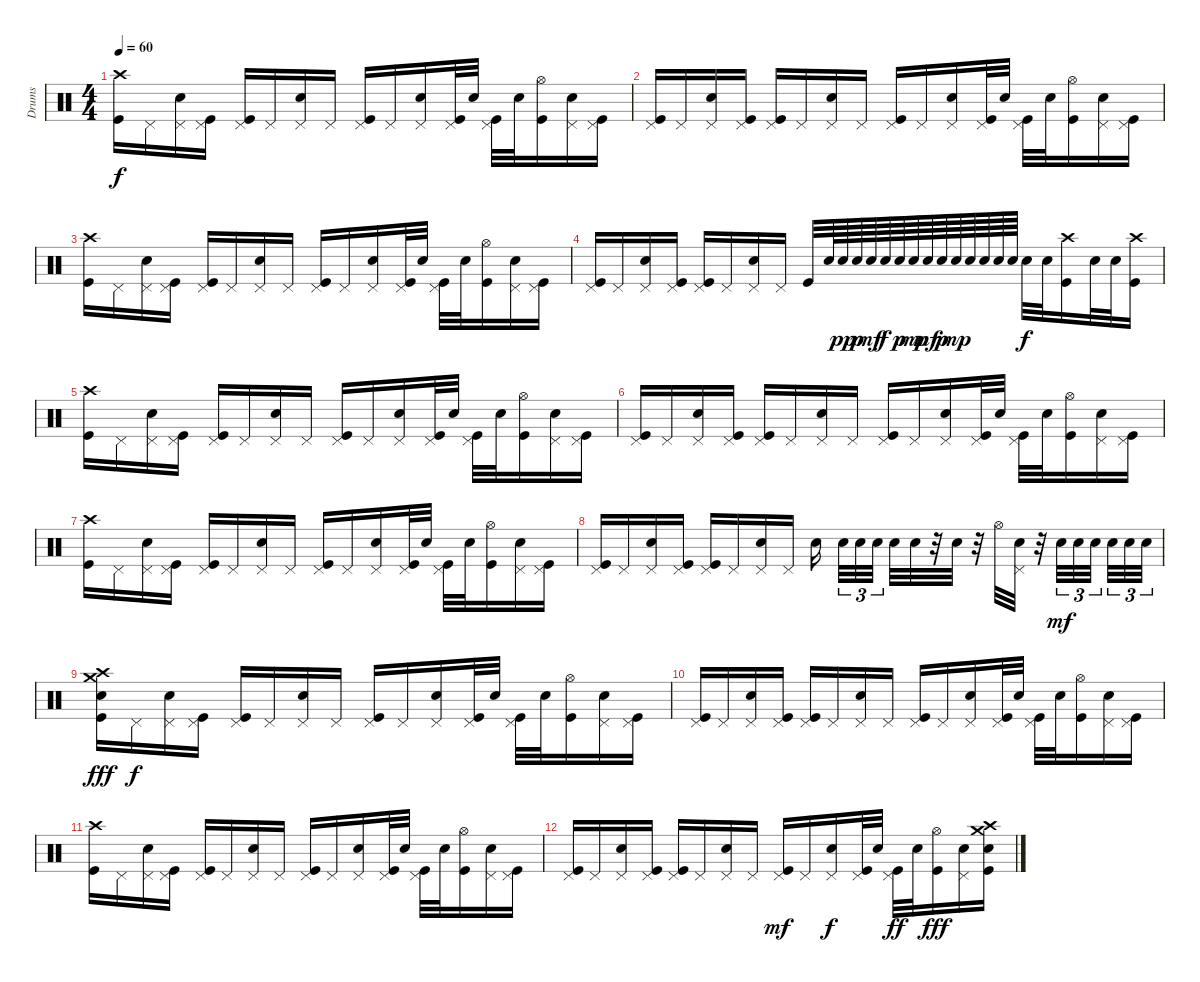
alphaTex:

\track ("Drums" "Drums") {instrument percussion}
\staff {score}
\articulation defaults
\ts (4 4)
\tempo 60
\clef neutral
\ks c
("Crash high (hit)" "Kick (hit)").16{dy f} "Pedal Hi-Hat (hit)".16 ("Pedal Hi-Hat (hit)" "Electric Snare (hit)").16 ("Pedal Hi-Hat (hit)" "Kick (hit)").16 ("Pedal Hi-Hat (hit)" "Kick (hit)").16 "Pedal Hi-Hat (hit)".16 ("Pedal Hi-Hat (hit)" "Electric Snare (hit)").16 "Pedal Hi-Hat (hit)".16 ("Pedal Hi-Hat (hit)" "Kick (hit)").16 "Pedal Hi-Hat (hit)".16 ("Pedal Hi-Hat (hit)" "Electric Snare (hit)").16 ("Pedal Hi-Hat (hit)" "Kick (hit)").32 "Electric Snare (hit)".32 ("Pedal Hi-Hat (hit)" "Kick (hit)").32 "Electric Snare (hit)".32 ("Hi-Hat (open)" "Kick (hit)").16 ("Pedal Hi-Hat (hit)" "Electric Snare (hit)").16 ("Pedal Hi-Hat (hit)" "Kick (hit)").16 |
("Pedal Hi-Hat (hit)" "Kick (hit)").16 "Pedal Hi-Hat (hit)".16 ("Pedal Hi-Hat (hit)" "Electric Snare (hit)").16 ("Pedal Hi-Hat (hit)" "Kick (hit)").16 ("Pedal Hi-Hat (hit)" "Kick (hit)").16 "Pedal Hi-Hat (hit)".16 ("Pedal Hi-Hat (hit)" "Electric Snare (hit)").16 "Pedal Hi-Hat (hit)".16 ("Pedal Hi-Hat (hit)" "Kick (hit)").16 "Pedal Hi-Hat (hit)".16 ("Pedal Hi-Hat (hit)" "Electric Snare (hit)").16 ("Pedal Hi-Hat (hit)" "Kick (hit)").32 "Electric Snare (hit)".32 ("Pedal Hi-Hat (hit)" "Kick (hit)").32 "Electric Snare (hit)".32 ("Hi-Hat (open)" "Kick (hit)").16 ("Pedal Hi-Hat (hit)" "Electric Snare (hit)").16 ("Pedal Hi-Hat (hit)" "Kick (hit)").16 |
("Crash high (hit)" "Kick (hit)").16 "Pedal Hi-Hat (hit)".16 ("Pedal Hi-Hat (hit)" "Electric Snare (hit)").16 ("Pedal Hi-Hat (hit)" "Kick (hit)").16 ("Pedal Hi-Hat (hit)" "Kick (hit)").16 "Pedal Hi-Hat (hit)".16 ("Pedal Hi-Hat (hit)" "Electric Snare (hit)").16 "Pedal Hi-Hat (hit)".16 ("Pedal Hi-Hat (hit)" "Kick (hit)").16 "Pedal Hi-Hat (hit)".16 ("Pedal Hi-Hat (hit)" "Electric Snare (hit)").16 ("Pedal Hi-Hat (hit)" "Kick (hit)").32 "Electric Snare (hit)".32 ("Pedal Hi-Hat (hit)" "Kick (hit)").32 "Electric Snare (hit)".32 ("Hi-Hat (open)" "Kick (hit)").16 ("Pedal Hi-Hat (hit)" "Electric Snare (hit)").16 ("Pedal Hi-Hat (hit)" "Kick (hit)").16 |
("Pedal Hi-Hat (hit)" "Kick (hit)").16 "Pedal Hi-Hat (hit)".16 ("Pedal Hi-Hat (hit)" "Electric Snare (hit)").16 ("Pedal Hi-Hat (hit)" "Kick (hit)").16 ("Pedal Hi-Hat (hit)" "Kick (hit)").16 "Pedal Hi-Hat (hit)".16 ("Pedal Hi-Hat (hit)" "Electric Snare (hit)").16 "Pedal Hi-Hat (hit)".16 "Kick (hit)".32 "Electric Snare (hit)".64 "Electric Snare (hit)".64{dy pp} "Electric Snare (hit)".64{dy p} "Electric Snare (hit)".64{dy mf} "Electric Snare (hit)".64{dy f} "Electric Snare (hit)".64{dy p} "Electric Snare (hit)".64{dy mp} "Electric Snare (hit)".64{dy mf} "Electric Snare (hit)".64{dy p} "Electric Snare (hit)".64{dy mp} "Electric Snare (hit)".64 "Electric Snare (hit)".64 "Electric Snare (hit)".64 "Electric Snare (hit)".64 "Electric Snare (hit)".32{dy f} "Electric Snare (hit)".32 ("Crash high (hit)" "Kick (hit)").16 "Electric Snare (hit)".32 "Electric Snare (hit)".32 ("Crash high (hit)" "Kick (hit)").16 |
("Crash high (hit)" "Kick (hit)").16 "Pedal Hi-Hat (hit)".16 ("Pedal Hi-Hat (hit)" "Electric Snare (hit)").16 ("Pedal Hi-Hat (hit)" "Kick (hit)").16 ("Pedal Hi-Hat (hit)" "Kick (hit)").16 "Pedal Hi-Hat (hit)".16 ("Pedal Hi-Hat (hit)" "Electric Snare (hit)").16 "Pedal Hi-Hat (hit)".16 ("Pedal Hi-Hat (hit)" "Kick (hit)").16 "Pedal Hi-Hat (hit)".16 ("Pedal Hi-Hat (hit)" "Electric Snare (hit)").16 ("Pedal Hi-Hat (hit)" "Kick (hit)").32 "Electric Snare (hit)".32 ("Pedal Hi-Hat (hit)" "Kick (hit)").32 "Electric Snare (hit)".32 ("Hi-Hat (open)" "Kick (hit)").16 ("Pedal Hi-Hat (hit)" "Electric Snare (hit)").16 ("Pedal Hi-Hat (hit)" "Kick (hit)").16 |
("Pedal Hi-Hat (hit)" "Kick (hit)").16 "Pedal Hi-Hat (hit)".16 ("Pedal Hi-Hat (hit)" "Electric Snare (hit)").16 ("Pedal Hi-Hat (hit)" "Kick (hit)").16 ("Pedal Hi-Hat (hit)" "Kick (hit)").16 "Pedal Hi-Hat (hit)".16 ("Pedal Hi-Hat (hit)" "Electric Snare (hit)").16 "Pedal Hi-Hat (hit)".16 ("Pedal Hi-Hat (hit)" "Kick (hit)").16 "Pedal Hi-Hat (hit)".16 ("Pedal Hi-Hat (hit)" "Electric Snare (hit)").16 ("Pedal Hi-Hat (hit)" "Kick (hit)").32 "Electric Snare (hit)".32 ("Pedal Hi-Hat (hit)" "Kick (hit)").32 "Electric Snare (hit)".32 ("Hi-Hat (open)" "Kick (hit)").16 ("Pedal Hi-Hat (hit)" "Electric Snare (hit)").16 ("Pedal Hi-Hat (hit)" "Kick (hit)").16 |
("Crash high (hit)" "Kick (hit)").16 "Pedal Hi-Hat (hit)".16 ("Pedal Hi-Hat (hit)" "Electric Snare (hit)").16 ("Pedal Hi-Hat (hit)" "Kick (hit)").16 ("Pedal Hi-Hat (hit)" "Kick (hit)").16 "Pedal Hi-Hat (hit)".16 ("Pedal Hi-Hat (hit)" "Electric Snare (hit)").16 "Pedal Hi-Hat (hit)".16 ("Pedal Hi-Hat (hit)" "Kick (hit)").16 "Pedal Hi-Hat (hit)".16 ("Pedal Hi-Hat (hit)" "Electric Snare (hit)").16 ("Pedal Hi-Hat (hit)" "Kick (hit)").32 "Electric Snare (hit)".32 ("Pedal Hi-Hat (hit)" "Kick (hit)").32 "Electric Snare (hit)".32 ("Hi-Hat (open)" "Kick (hit)").16 ("Pedal Hi-Hat (hit)" "Electric Snare (hit)").16 ("Pedal Hi-Hat (hit)" "Kick (hit)").16 |
("Pedal Hi-Hat (hit)" "Kick (hit)").16 "Pedal Hi-Hat (hit)".16 ("Pedal Hi-Hat (hit)" "Electric Snare (hit)").16 ("Pedal Hi-Hat (hit)" "Kick (hit)").16 ("Pedal Hi-Hat (hit)" "Kick (hit)").16 "Pedal Hi-Hat (hit)".16 ("Pedal Hi-Hat (hit)" "Electric Snare (hit)").16 "Pedal Hi-Hat (hit)".16 "Electric Snare (hit)".16 "Electric Snare (hit)".32{tu (3 2)} "Electric Snare (hit)".32{tu (3 2)} "Electric Snare (hit)".32{tu (3 2)} "Electric Snare (hit)".32 "Electric Snare (hit)".32 r.32 "Electric Snare (hit)".32 r.32 "Hi-Hat (open)".32 ("Pedal Hi-Hat (hit)" "Electric Snare (hit)").32 r.32 "Electric Snare (hit)".32{tu (3 2) dy mf} "Electric Snare (hit)".32{tu (3 2)} "Electric Snare (hit)".32{tu (3 2)} "Electric Snare (hit)".32{tu (3 2)} "Electric Snare (hit)".32{tu (3 2)} "Electric Snare (hit)".32{tu (3 2)} |
("Crash high (hit)" "Crash medium (hit)" "Electric Snare (hit)" "Kick (hit)").16{dy fff} "Pedal Hi-Hat (hit)".16{dy f} ("Pedal Hi-Hat (hit)" "Electric Snare (hit)").16 ("Pedal Hi-Hat (hit)" "Kick (hit)").16 ("Pedal Hi-Hat (hit)" "Kick (hit)").16 "Pedal Hi-Hat (hit)".16 ("Pedal Hi-Hat (hit)" "Electric Snare (hit)").16 "Pedal Hi-Hat (hit)".16 ("Pedal Hi-Hat (hit)" "Kick (hit)").16 "Pedal Hi-Hat (hit)".16 ("Pedal Hi-Hat (hit)" "Electric Snare (hit)").16 ("Pedal Hi-Hat (hit)" "Kick (hit)").32 "Electric Snare (hit)".32 ("Pedal Hi-Hat (hit)" "Kick (hit)").32 "Electric Snare (hit)".32 ("Hi-Hat (open)" "Kick (hit)").16 ("Pedal Hi-Hat (hit)" "Electric Snare (hit)").16 ("Pedal Hi-Hat (hit)" "Kick (hit)").16 |
("Pedal Hi-Hat (hit)" "Kick (hit)").16 "Pedal Hi-Hat (hit)".16 ("Pedal Hi-Hat (hit)" "Electric Snare (hit)").16 ("Pedal Hi-Hat (hit)" "Kick (hit)").16 ("Pedal Hi-Hat (hit)" "Kick (hit)").16 "Pedal Hi-Hat (hit)".16 ("Pedal Hi-Hat (hit)" "Electric Snare (hit)").16 "Pedal Hi-Hat (hit)".16 ("Pedal Hi-Hat (hit)" "Kick (hit)").16 "Pedal Hi-Hat (hit)".16 ("Pedal Hi-Hat (hit)" "Electric Snare (hit)").16 ("Pedal Hi-Hat (hit)" "Kick (hit)").32 "Electric Snare (hit)".32 ("Pedal Hi-Hat (hit)" "Kick (hit)").32 "Electric Snare (hit)".32 ("Hi-Hat (open)" "Kick (hit)").16 ("Pedal Hi-Hat (hit)" "Electric Snare (hit)").16 ("Pedal Hi-Hat (hit)" "Kick (hit)").16 |
("Crash high (hit)" "Kick (hit)").16 "Pedal Hi-Hat (hit)".16 ("Pedal Hi-Hat (hit)" "Electric Snare (hit)").16 ("Pedal Hi-Hat (hit)" "Kick (hit)").16 ("Pedal Hi-Hat (hit)" "Kick (hit)").16 "Pedal Hi-Hat (hit)".16 ("Pedal Hi-Hat (hit)" "Electric Snare (hit)").16 "Pedal Hi-Hat (hit)".16 ("Pedal Hi-Hat (hit)" "Kick (hit)").16 "Pedal Hi-Hat (hit)".16 ("Pedal Hi-Hat (hit)" "Electric Snare (hit)").16 ("Pedal Hi-Hat (hit)" "Kick (hit)").32 "Electric Snare (hit)".32 ("Pedal Hi-Hat (hit)" "Kick (hit)").32 "Electric Snare (hit)".32 ("Hi-Hat (open)" "Kick (hit)").16 ("Pedal Hi-Hat (hit)" "Electric Snare (hit)").16 ("Pedal Hi-Hat (hit)" "Kick (hit)").16 |
("Pedal Hi-Hat (hit)" "Kick (hit)").16 "Pedal Hi-Hat (hit)".16 ("Pedal Hi-Hat (hit)" "Electric Snare (hit)").16 ("Pedal Hi-Hat (hit)" "Kick (hit)").16 ("Pedal Hi-Hat (hit)" "Kick (hit)").16 "Pedal Hi-Hat (hit)".16 ("Pedal Hi-Hat (hit)" "Electric Snare (hit)").16 "Pedal Hi-Hat (hit)".16 ("Pedal Hi-Hat (hit)" "Kick (hit)").16{dy mf} "Pedal Hi-Hat (hit)".16 ("Pedal Hi-Hat (hit)" "Electric Snare (hit)").16{dy f} ("Pedal Hi-Hat (hit)" "Kick (hit)").32 "Electric Snare (hit)".32 ("Pedal Hi-Hat (hit)" "Kick (hit)").32{dy ff} "Electric Snare (hit)".32 ("Hi-Hat (open)" "Kick (hit)").16{dy fff} ("Pedal Hi-Hat (hit)" "Electric Snare (hit)").16 ("Crash high (hit)" "Crash medium (hit)" "Electric Snare (hit)" "Kick (hit)").16
